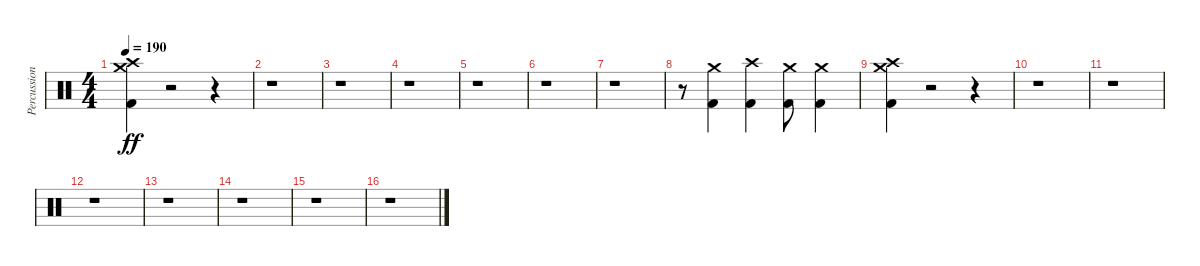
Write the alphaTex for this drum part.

\track ("Percussion" "Percussion") {instrument percussion}
\staff {score}
\articulation defaults
\ts (4 4)
\tempo 190
\clef neutral
\ks c
("Kick (hit) 2" "Crash high (hit)" "Crash medium (hit)").4{dy ff} r.2 r.4 |
r.1 |
r.1 |
r.1 |
r.1 |
r.1 |
r.1 |
r.8 ("Kick (hit) 2" "Crash medium (hit)").4 ("Kick (hit) 2" "Crash high (hit)").4 ("Kick (hit) 2" "Crash medium (hit)").8 ("Kick (hit) 2" "Crash medium (hit)").4 |
("Kick (hit) 2" "Crash high (hit)" "Crash medium (hit)").4 r.2 r.4 |
r.1 |
r.1 |
r.1 |
r.1 |
r.1 |
r.1 |
r.1
